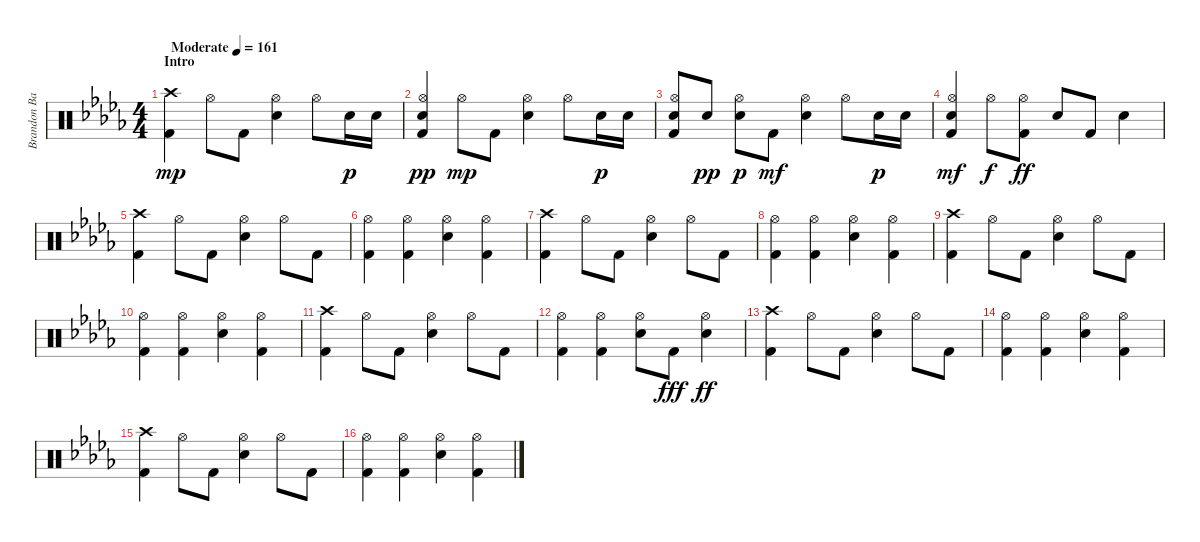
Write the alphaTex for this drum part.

\track ("Brandon Barnes - Drums" "Brandon Ba") {instrument percussion}
\staff {score}
\articulation defaults
\ts (4 4)
\section ("" "Intro")
\tempo (161 "Moderate")
\clef neutral
\ks db
("Kick (hit) 2" "Crash high (hit)").4{dy mp} "Hi-Hat (open)".8 "Kick (hit) 2".8 ("Snare (hit) 2" "Hi-Hat (open)").4 "Hi-Hat (open)".8 "Snare (hit) 2".16{dy p} "Snare (hit) 2".16 |
("Kick (hit) 2" "Hi-Hat (open)" "Snare (hit) 2").4{dy pp} "Hi-Hat (open)".8{dy mp} "Kick (hit) 2".8 ("Snare (hit) 2" "Hi-Hat (open)").4 "Hi-Hat (open)".8 "Snare (hit) 2".16{dy p} "Snare (hit) 2".16 |
("Kick (hit) 2" "Hi-Hat (open)" "Snare (hit) 2").8 "Snare (hit) 2".8{dy pp} ("Snare (hit) 2" "Hi-Hat (open)").8{dy p} "Kick (hit) 2".8{dy mf} ("Snare (hit) 2" "Hi-Hat (open)").4 "Hi-Hat (open)".8 "Snare (hit) 2".16{dy p} "Snare (hit) 2".16 |
("Kick (hit) 2" "Hi-Hat (open)" "Snare (hit) 2").4{dy mf} "Hi-Hat (open)".8{dy f} ("Kick (hit) 2" "Hi-Hat (open)").8{dy ff volume 8} "Snare (hit) 2".8 "Kick (hit) 2".8 "Snare (hit) 2".4 |
("Kick (hit) 2" "Crash high (hit)").4 "Hi-Hat (open)".8 "Kick (hit) 2".8 ("Snare (hit) 2" "Hi-Hat (open)").4 "Hi-Hat (open)".8 "Kick (hit) 2".8 |
("Kick (hit) 2" "Hi-Hat (open)").4 ("Kick (hit) 2" "Hi-Hat (open)").4 ("Snare (hit) 2" "Hi-Hat (open)").4 ("Kick (hit) 2" "Hi-Hat (open)").4 |
("Kick (hit) 2" "Crash high (hit)").4 "Hi-Hat (open)".8 "Kick (hit) 2".8 ("Snare (hit) 2" "Hi-Hat (open)").4 "Hi-Hat (open)".8 "Kick (hit) 2".8 |
("Kick (hit) 2" "Hi-Hat (open)").4 ("Kick (hit) 2" "Hi-Hat (open)").4 ("Snare (hit) 2" "Hi-Hat (open)").4 ("Kick (hit) 2" "Hi-Hat (open)").4 |
("Kick (hit) 2" "Crash high (hit)").4 "Hi-Hat (open)".8 "Kick (hit) 2".8 ("Snare (hit) 2" "Hi-Hat (open)").4 "Hi-Hat (open)".8 "Kick (hit) 2".8 |
("Kick (hit) 2" "Hi-Hat (open)").4 ("Kick (hit) 2" "Hi-Hat (open)").4 ("Snare (hit) 2" "Hi-Hat (open)").4 ("Kick (hit) 2" "Hi-Hat (open)").4 |
("Kick (hit) 2" "Crash high (hit)").4 "Hi-Hat (open)".8 "Kick (hit) 2".8 ("Snare (hit) 2" "Hi-Hat (open)").4 "Hi-Hat (open)".8 "Kick (hit) 2".8 |
("Kick (hit) 2" "Hi-Hat (open)").4 ("Kick (hit) 2" "Hi-Hat (open)").4 ("Snare (hit) 2" "Hi-Hat (open)").8 "Kick (hit) 2".8{dy fff} ("Snare (hit) 2" "Hi-Hat (open)").4{dy ff} |
("Kick (hit) 2" "Crash high (hit)").4 "Hi-Hat (open)".8 "Kick (hit) 2".8 ("Snare (hit) 2" "Hi-Hat (open)").4 "Hi-Hat (open)".8 "Kick (hit) 2".8 |
("Kick (hit) 2" "Hi-Hat (open)").4 ("Kick (hit) 2" "Hi-Hat (open)").4 ("Snare (hit) 2" "Hi-Hat (open)").4 ("Kick (hit) 2" "Hi-Hat (open)").4 |
("Kick (hit) 2" "Crash high (hit)").4 "Hi-Hat (open)".8 "Kick (hit) 2".8 ("Snare (hit) 2" "Hi-Hat (open)").4 "Hi-Hat (open)".8 "Kick (hit) 2".8 |
("Kick (hit) 2" "Hi-Hat (open)").4 ("Kick (hit) 2" "Hi-Hat (open)").4 ("Snare (hit) 2" "Hi-Hat (open)").4 ("Kick (hit) 2" "Hi-Hat (open)").4
